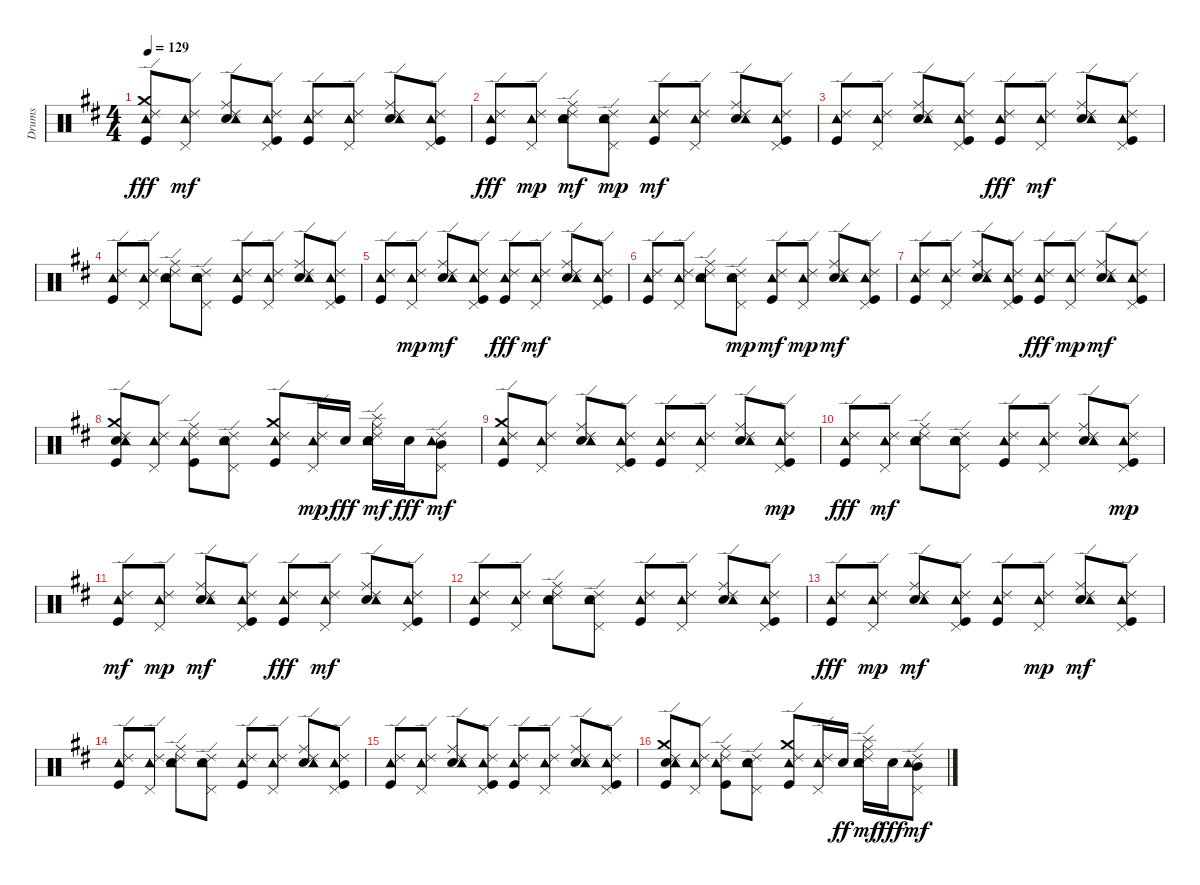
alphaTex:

\track ("Drums" "Drums") {instrument percussion}
\staff {score}
\articulation defaults
\ts (4 4)
\tempo 129
\clef neutral
\ks d
("Kick (hit)" "Tambourine (hit)" "Crash medium (hit)" "Ride (edge) 2").8{dy fff} ("Pedal Hi-Hat (hit)" "Tambourine (hit)" "Ride (edge) 2").8{dy mf} ("Snare (hit) 2" "Ride (middle)" "Tambourine (hit)" "Ride (edge) 2").8 ("Kick (hit)" "Pedal Hi-Hat (hit)" "Tambourine (hit)" "Ride (edge) 2").8 ("Kick (hit)" "Tambourine (hit)" "Ride (edge) 2").8 ("Pedal Hi-Hat (hit)" "Tambourine (hit)" "Ride (edge) 2").8 ("Snare (hit) 2" "Ride (middle)" "Tambourine (hit)" "Ride (edge) 2").8 ("Kick (hit)" "Pedal Hi-Hat (hit)" "Tambourine (hit)" "Ride (edge) 2").8 |
("Kick (hit)" "Tambourine (hit)" "Ride (edge) 2").8{dy fff} ("Pedal Hi-Hat (hit)" "Tambourine (hit)" "Ride (edge) 2").8{dy mp} ("Snare (hit) 2" "Ride (middle)" "Tambourine (hit)" "Ride (edge) 2").8{dy mf} ("Snare (hit) 2" "Pedal Hi-Hat (hit)" "Tambourine (hit)" "Ride (edge) 2").8{dy mp} ("Kick (hit)" "Tambourine (hit)" "Ride (edge) 2").8{dy mf} ("Pedal Hi-Hat (hit)" "Tambourine (hit)" "Ride (edge) 2").8 ("Snare (hit) 2" "Ride (middle)" "Tambourine (hit)" "Ride (edge) 2").8 ("Kick (hit)" "Pedal Hi-Hat (hit)" "Tambourine (hit)" "Ride (edge) 2").8 |
("Kick (hit)" "Tambourine (hit)" "Ride (edge) 2").8 ("Pedal Hi-Hat (hit)" "Tambourine (hit)" "Ride (edge) 2").8 ("Snare (hit) 2" "Ride (middle)" "Tambourine (hit)" "Ride (edge) 2").8 ("Kick (hit)" "Pedal Hi-Hat (hit)" "Tambourine (hit)" "Ride (edge) 2").8 ("Kick (hit)" "Tambourine (hit)" "Ride (edge) 2").8{dy fff} ("Pedal Hi-Hat (hit)" "Tambourine (hit)" "Ride (edge) 2").8{dy mf} ("Snare (hit) 2" "Ride (middle)" "Tambourine (hit)" "Ride (edge) 2").8 ("Kick (hit)" "Pedal Hi-Hat (hit)" "Tambourine (hit)" "Ride (edge) 2").8 |
("Kick (hit)" "Tambourine (hit)" "Ride (edge) 2").8 ("Pedal Hi-Hat (hit)" "Tambourine (hit)" "Ride (edge) 2").8 ("Snare (hit) 2" "Ride (middle)" "Tambourine (hit)" "Ride (edge) 2").8 ("Snare (hit) 2" "Pedal Hi-Hat (hit)" "Tambourine (hit)" "Ride (edge) 2").8 ("Kick (hit)" "Tambourine (hit)" "Ride (edge) 2").8 ("Pedal Hi-Hat (hit)" "Tambourine (hit)" "Ride (edge) 2").8 ("Snare (hit) 2" "Ride (middle)" "Tambourine (hit)" "Ride (edge) 2").8 ("Kick (hit)" "Pedal Hi-Hat (hit)" "Tambourine (hit)" "Ride (edge) 2").8 |
("Kick (hit)" "Tambourine (hit)" "Ride (edge) 2").8 ("Pedal Hi-Hat (hit)" "Tambourine (hit)" "Ride (edge) 2").8{dy mp} ("Snare (hit) 2" "Ride (middle)" "Tambourine (hit)" "Ride (edge) 2").8{dy mf} ("Kick (hit)" "Pedal Hi-Hat (hit)" "Tambourine (hit)" "Ride (edge) 2").8 ("Kick (hit)" "Tambourine (hit)" "Ride (edge) 2").8{dy fff} ("Pedal Hi-Hat (hit)" "Tambourine (hit)" "Ride (edge) 2").8{dy mf} ("Snare (hit) 2" "Ride (middle)" "Tambourine (hit)" "Ride (edge) 2").8 ("Kick (hit)" "Pedal Hi-Hat (hit)" "Tambourine (hit)" "Ride (edge) 2").8 |
("Kick (hit)" "Tambourine (hit)" "Ride (edge) 2").8 ("Pedal Hi-Hat (hit)" "Tambourine (hit)" "Ride (edge) 2").8 ("Snare (hit) 2" "Ride (middle)" "Tambourine (hit)" "Ride (edge) 2").8 ("Snare (hit) 2" "Pedal Hi-Hat (hit)" "Tambourine (hit)" "Ride (edge) 2").8{dy mp} ("Kick (hit)" "Tambourine (hit)" "Ride (edge) 2").8{dy mf} ("Pedal Hi-Hat (hit)" "Tambourine (hit)" "Ride (edge) 2").8{dy mp} ("Snare (hit) 2" "Ride (middle)" "Tambourine (hit)" "Ride (edge) 2").8{dy mf} ("Kick (hit)" "Pedal Hi-Hat (hit)" "Tambourine (hit)" "Ride (edge) 2").8 |
("Kick (hit)" "Tambourine (hit)" "Ride (edge) 2").8 ("Pedal Hi-Hat (hit)" "Tambourine (hit)" "Ride (edge) 2").8 ("Snare (hit) 2" "Ride (middle)" "Tambourine (hit)" "Ride (edge) 2").8 ("Kick (hit)" "Pedal Hi-Hat (hit)" "Tambourine (hit)" "Ride (edge) 2").8 ("Kick (hit)" "Tambourine (hit)" "Ride (edge) 2").8{dy fff} ("Pedal Hi-Hat (hit)" "Tambourine (hit)" "Ride (edge) 2").8{dy mp} ("Snare (hit) 2" "Ride (middle)" "Tambourine (hit)" "Ride (edge) 2").8{dy mf} ("Kick (hit)" "Pedal Hi-Hat (hit)" "Tambourine (hit)" "Ride (edge) 2").8 |
("Kick (hit)" "Snare (hit) 2" "Tambourine (hit)" "Crash medium (hit)" "Ride (edge) 2").8 ("Pedal Hi-Hat (hit)" "Tambourine (hit)" "Ride (edge) 2").8 ("Kick (hit)" "Ride (middle)" "Tambourine (hit)" "Ride (edge) 2").8 ("Snare (hit) 2" "Pedal Hi-Hat (hit)" "Tambourine (hit)" "Ride (edge) 2").8 ("Kick (hit)" "Tambourine (hit)" "Crash medium (hit)" "Ride (edge) 2").8 ("Pedal Hi-Hat (hit)" "Tambourine (hit)" "Ride (edge) 2").16{dy mp} "Snare (hit) 2".16{dy fff} ("Snare (hit) 2" "Ride (middle)" "Tambourine (hit)" "Splash (hit)" "Ride (edge) 2").16{dy mf} "Snare (hit) 2".16{dy fff} ("Pedal Hi-Hat (hit)" "Mid Tom (hit)" "Tambourine (hit)" "Ride (edge) 2").8{dy mf} |
("Kick (hit)" "Tambourine (hit)" "Crash medium (hit)" "Ride (edge) 2").8 ("Pedal Hi-Hat (hit)" "Tambourine (hit)" "Ride (edge) 2").8 ("Snare (hit) 2" "Ride (middle)" "Tambourine (hit)" "Ride (edge) 2").8 ("Kick (hit)" "Pedal Hi-Hat (hit)" "Tambourine (hit)" "Ride (edge) 2").8 ("Kick (hit)" "Tambourine (hit)" "Ride (edge) 2").8 ("Pedal Hi-Hat (hit)" "Tambourine (hit)" "Ride (edge) 2").8 ("Snare (hit) 2" "Ride (middle)" "Tambourine (hit)" "Ride (edge) 2").8 ("Kick (hit)" "Pedal Hi-Hat (hit)" "Tambourine (hit)" "Ride (edge) 2").8{dy mp} |
("Kick (hit)" "Tambourine (hit)" "Ride (edge) 2").8{dy fff} ("Pedal Hi-Hat (hit)" "Tambourine (hit)" "Ride (edge) 2").8{dy mf} ("Snare (hit) 2" "Ride (middle)" "Tambourine (hit)" "Ride (edge) 2").8 ("Snare (hit) 2" "Pedal Hi-Hat (hit)" "Tambourine (hit)" "Ride (edge) 2").8 ("Kick (hit)" "Tambourine (hit)" "Ride (edge) 2").8 ("Pedal Hi-Hat (hit)" "Tambourine (hit)" "Ride (edge) 2").8 ("Snare (hit) 2" "Ride (middle)" "Tambourine (hit)" "Ride (edge) 2").8 ("Kick (hit)" "Pedal Hi-Hat (hit)" "Tambourine (hit)" "Ride (edge) 2").8{dy mp} |
("Kick (hit)" "Tambourine (hit)" "Ride (edge) 2").8{dy mf} ("Pedal Hi-Hat (hit)" "Tambourine (hit)" "Ride (edge) 2").8{dy mp} ("Snare (hit) 2" "Ride (middle)" "Tambourine (hit)" "Ride (edge) 2").8{dy mf} ("Kick (hit)" "Pedal Hi-Hat (hit)" "Tambourine (hit)" "Ride (edge) 2").8 ("Kick (hit)" "Tambourine (hit)" "Ride (edge) 2").8{dy fff} ("Pedal Hi-Hat (hit)" "Tambourine (hit)" "Ride (edge) 2").8{dy mf} ("Snare (hit) 2" "Ride (middle)" "Tambourine (hit)" "Ride (edge) 2").8 ("Kick (hit)" "Pedal Hi-Hat (hit)" "Tambourine (hit)" "Ride (edge) 2").8 |
("Kick (hit)" "Tambourine (hit)" "Ride (edge) 2").8 ("Pedal Hi-Hat (hit)" "Tambourine (hit)" "Ride (edge) 2").8 ("Snare (hit) 2" "Ride (middle)" "Tambourine (hit)" "Ride (edge) 2").8 ("Snare (hit) 2" "Pedal Hi-Hat (hit)" "Tambourine (hit)" "Ride (edge) 2").8 ("Kick (hit)" "Tambourine (hit)" "Ride (edge) 2").8 ("Pedal Hi-Hat (hit)" "Tambourine (hit)" "Ride (edge) 2").8 ("Snare (hit) 2" "Ride (middle)" "Tambourine (hit)" "Ride (edge) 2").8 ("Kick (hit)" "Pedal Hi-Hat (hit)" "Tambourine (hit)" "Ride (edge) 2").8 |
("Kick (hit)" "Tambourine (hit)" "Ride (edge) 2").8{dy fff} ("Pedal Hi-Hat (hit)" "Tambourine (hit)" "Ride (edge) 2").8{dy mp} ("Snare (hit) 2" "Ride (middle)" "Tambourine (hit)" "Ride (edge) 2").8{dy mf} ("Kick (hit)" "Pedal Hi-Hat (hit)" "Tambourine (hit)" "Ride (edge) 2").8 ("Kick (hit)" "Tambourine (hit)" "Ride (edge) 2").8 ("Pedal Hi-Hat (hit)" "Tambourine (hit)" "Ride (edge) 2").8{dy mp} ("Snare (hit) 2" "Ride (middle)" "Tambourine (hit)" "Ride (edge) 2").8{dy mf} ("Kick (hit)" "Pedal Hi-Hat (hit)" "Tambourine (hit)" "Ride (edge) 2").8 |
("Kick (hit)" "Tambourine (hit)" "Ride (edge) 2").8 ("Pedal Hi-Hat (hit)" "Tambourine (hit)" "Ride (edge) 2").8 ("Snare (hit) 2" "Ride (middle)" "Tambourine (hit)" "Ride (edge) 2").8 ("Snare (hit) 2" "Pedal Hi-Hat (hit)" "Tambourine (hit)" "Ride (edge) 2").8 ("Kick (hit)" "Tambourine (hit)" "Ride (edge) 2").8 ("Pedal Hi-Hat (hit)" "Tambourine (hit)" "Ride (edge) 2").8 ("Snare (hit) 2" "Ride (middle)" "Tambourine (hit)" "Ride (edge) 2").8 ("Kick (hit)" "Pedal Hi-Hat (hit)" "Tambourine (hit)" "Ride (edge) 2").8 |
("Kick (hit)" "Tambourine (hit)" "Ride (edge) 2").8 ("Pedal Hi-Hat (hit)" "Tambourine (hit)" "Ride (edge) 2").8 ("Snare (hit) 2" "Ride (middle)" "Tambourine (hit)" "Ride (edge) 2").8 ("Kick (hit)" "Pedal Hi-Hat (hit)" "Tambourine (hit)" "Ride (edge) 2").8 ("Kick (hit)" "Tambourine (hit)" "Ride (edge) 2").8 ("Pedal Hi-Hat (hit)" "Tambourine (hit)" "Ride (edge) 2").8 ("Snare (hit) 2" "Ride (middle)" "Tambourine (hit)" "Ride (edge) 2").8 ("Kick (hit)" "Pedal Hi-Hat (hit)" "Tambourine (hit)" "Ride (edge) 2").8 |
("Kick (hit)" "Snare (hit) 2" "Tambourine (hit)" "Crash medium (hit)" "Ride (edge) 2").8 ("Pedal Hi-Hat (hit)" "Tambourine (hit)" "Ride (edge) 2").8 ("Kick (hit)" "Ride (middle)" "Tambourine (hit)" "Ride (edge) 2").8 ("Snare (hit) 2" "Pedal Hi-Hat (hit)" "Tambourine (hit)" "Ride (edge) 2").8 ("Kick (hit)" "Tambourine (hit)" "Crash medium (hit)" "Ride (edge) 2").8 ("Pedal Hi-Hat (hit)" "Tambourine (hit)" "Ride (edge) 2").16 "Snare (hit) 2".16{dy ff} ("Snare (hit) 2" "Ride (middle)" "Tambourine (hit)" "Splash (hit)" "Ride (edge) 2").16{dy mf} "Snare (hit) 2".16{dy fff} ("Pedal Hi-Hat (hit)" "Mid Tom (hit)" "Tambourine (hit)" "Ride (edge) 2").8{dy mf}
